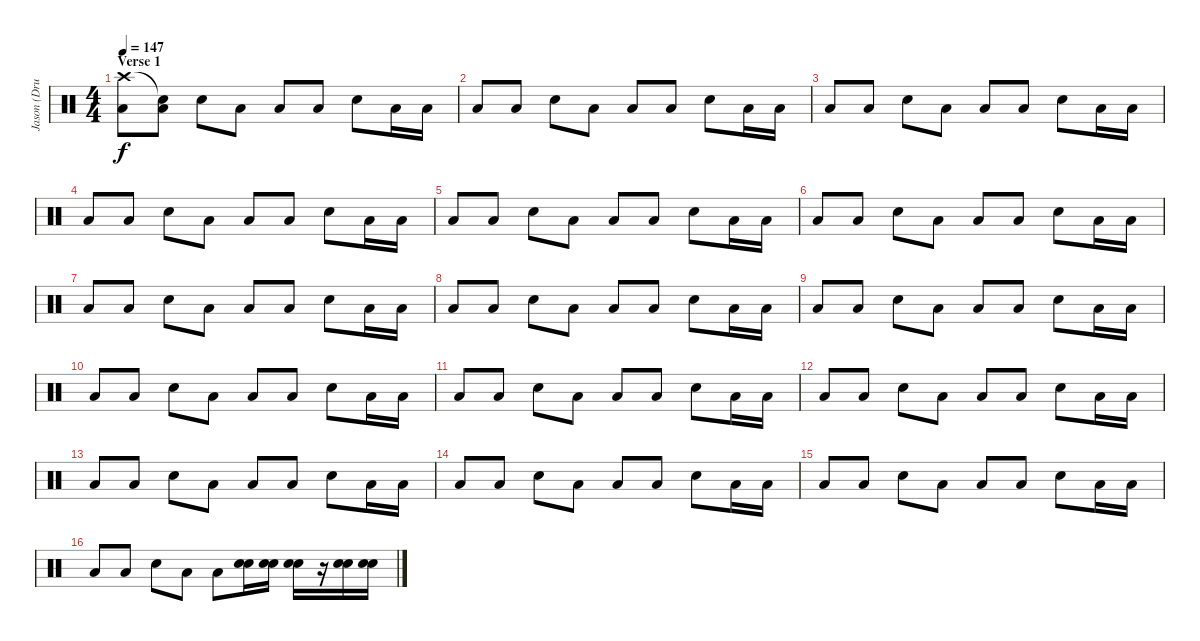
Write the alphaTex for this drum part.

\track ("Jason (Drums)" "Jason (Dru") {instrument percussion}
\staff {score}
\articulation defaults
\ts (4 4)
\section ("" "Verse 1")
\tempo 147
\clef neutral
\ks c
("Crash high (hit)" "Low Tom (hit)").8{dy f} ("Snare (hit)"{t} "Low Floor Tom (hit)").8 "Electric Snare (hit)".8 "Low Floor Tom (hit)".8 "Low Floor Tom (hit)".8 "Low Floor Tom (hit)".8 "Electric Snare (hit)".8 "Low Tom (hit)".16 "Low Tom (hit)".16 |
"Low Tom (hit)".8 "Low Floor Tom (hit)".8 "Electric Snare (hit)".8 "Low Floor Tom (hit)".8 "Low Floor Tom (hit)".8 "Low Floor Tom (hit)".8 "Electric Snare (hit)".8 "Low Tom (hit)".16 "Low Tom (hit)".16 |
"Low Tom (hit)".8 "Low Floor Tom (hit)".8 "Electric Snare (hit)".8 "Low Floor Tom (hit)".8 "Low Floor Tom (hit)".8 "Low Floor Tom (hit)".8 "Electric Snare (hit)".8 "Low Tom (hit)".16 "Low Tom (hit)".16 |
"Low Tom (hit)".8 "Low Floor Tom (hit)".8 "Electric Snare (hit)".8 "Low Floor Tom (hit)".8 "Low Floor Tom (hit)".8 "Low Floor Tom (hit)".8 "Electric Snare (hit)".8 "Low Tom (hit)".16 "Low Tom (hit)".16 |
"Low Tom (hit)".8 "Low Floor Tom (hit)".8 "Electric Snare (hit)".8 "Low Floor Tom (hit)".8 "Low Floor Tom (hit)".8 "Low Floor Tom (hit)".8 "Electric Snare (hit)".8 "Low Tom (hit)".16 "Low Tom (hit)".16 |
"Low Tom (hit)".8 "Low Floor Tom (hit)".8 "Electric Snare (hit)".8 "Low Floor Tom (hit)".8 "Low Floor Tom (hit)".8 "Low Floor Tom (hit)".8 "Electric Snare (hit)".8 "Low Tom (hit)".16 "Low Tom (hit)".16 |
"Low Tom (hit)".8 "Low Floor Tom (hit)".8 "Electric Snare (hit)".8 "Low Floor Tom (hit)".8 "Low Floor Tom (hit)".8 "Low Floor Tom (hit)".8 "Electric Snare (hit)".8 "Low Tom (hit)".16 "Low Tom (hit)".16 |
"Low Tom (hit)".8 "Low Floor Tom (hit)".8 "Electric Snare (hit)".8 "Low Floor Tom (hit)".8 "Low Floor Tom (hit)".8 "Low Floor Tom (hit)".8 "Electric Snare (hit)".8 "Low Tom (hit)".16 "Low Tom (hit)".16 |
"Low Tom (hit)".8 "Low Floor Tom (hit)".8 "Electric Snare (hit)".8 "Low Floor Tom (hit)".8 "Low Floor Tom (hit)".8 "Low Floor Tom (hit)".8 "Electric Snare (hit)".8 "Low Tom (hit)".16 "Low Tom (hit)".16 |
"Low Tom (hit)".8 "Low Floor Tom (hit)".8 "Electric Snare (hit)".8 "Low Floor Tom (hit)".8 "Low Floor Tom (hit)".8 "Low Floor Tom (hit)".8 "Electric Snare (hit)".8 "Low Tom (hit)".16 "Low Tom (hit)".16 |
"Low Tom (hit)".8 "Low Floor Tom (hit)".8 "Electric Snare (hit)".8 "Low Floor Tom (hit)".8 "Low Floor Tom (hit)".8 "Low Floor Tom (hit)".8 "Electric Snare (hit)".8 "Low Tom (hit)".16 "Low Tom (hit)".16 |
"Low Tom (hit)".8 "Low Floor Tom (hit)".8 "Electric Snare (hit)".8 "Low Floor Tom (hit)".8 "Low Floor Tom (hit)".8 "Low Floor Tom (hit)".8 "Electric Snare (hit)".8 "Low Tom (hit)".16 "Low Tom (hit)".16 |
"Low Tom (hit)".8 "Low Floor Tom (hit)".8 "Electric Snare (hit)".8 "Low Floor Tom (hit)".8 "Low Floor Tom (hit)".8 "Low Floor Tom (hit)".8 "Electric Snare (hit)".8 "Low Tom (hit)".16 "Low Tom (hit)".16 |
"Low Tom (hit)".8 "Low Floor Tom (hit)".8 "Electric Snare (hit)".8 "Low Floor Tom (hit)".8 "Low Floor Tom (hit)".8 "Low Floor Tom (hit)".8 "Electric Snare (hit)".8 "Low Tom (hit)".16 "Low Tom (hit)".16 |
"Low Tom (hit)".8 "Low Floor Tom (hit)".8 "Electric Snare (hit)".8 "Low Floor Tom (hit)".8 "Low Floor Tom (hit)".8 "Low Floor Tom (hit)".8 "Electric Snare (hit)".8 "Low Tom (hit)".16 "Low Tom (hit)".16 |
"Low Tom (hit)".8 "Low Floor Tom (hit)".8 "Electric Snare (hit)".8 "Low Floor Tom (hit)".8 "Low Floor Tom (hit)".8 ("Electric Snare (hit)" "Snare (hit) 2").16 ("Electric Snare (hit)" "Snare (hit) 2").16 ("Electric Snare (hit)" "Snare (hit) 2").16 r.16 ("Electric Snare (hit)" "Snare (hit) 2").16 ("Electric Snare (hit)" "Snare (hit) 2").16
